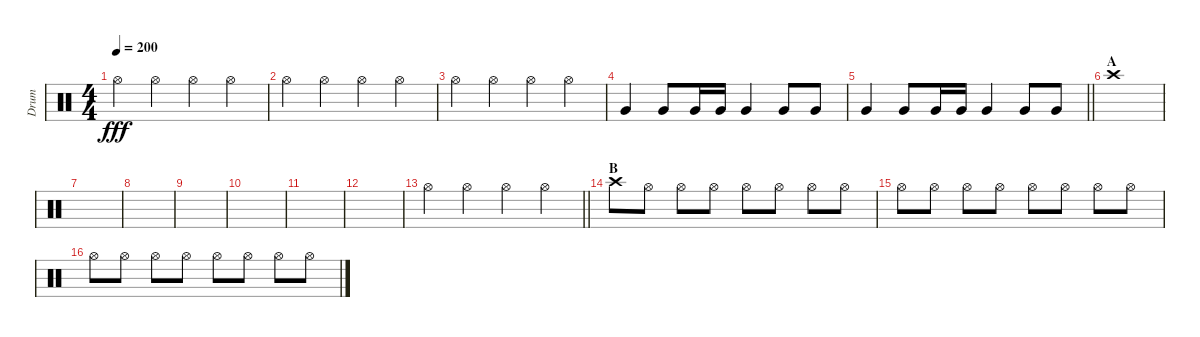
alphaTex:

\track ("Drum" "Drum") {instrument percussion}
\staff {score}
\articulation defaults
\ts (4 4)
\tempo 200
\clef neutral
\ks c "Hi-Hat (open)".4{dy fff} "Hi-Hat (open)".4 "Hi-Hat (open)".4 "Hi-Hat (open)".4
|
"Hi-Hat (open)".4 "Hi-Hat (open)".4 "Hi-Hat (open)".4 "Hi-Hat (open)".4 |
"Hi-Hat (open)".4 "Hi-Hat (open)".4 "Hi-Hat (open)".4 "Hi-Hat (open)".4 |
"Very Low Tom (hit)".4 "Very Low Tom (hit)".8 "Very Low Tom (hit)".16 "Very Low Tom (hit)".16 "Very Low Tom (hit)".4 "Very Low Tom (hit)".8 "Very Low Tom (hit)".8 |
\barLineRight lightlight "Very Low Tom (hit)".4 "Very Low Tom (hit)".8 "Very Low Tom (hit)".16 "Very Low Tom (hit)".16 "Very Low Tom (hit)".4 "Very Low Tom (hit)".8 "Very Low Tom (hit)".8
|
\section ("" "A")
"Crash high (hit)".1 |
|
|
|
|
|
|
\barLineRight lightlight "Hi-Hat (open)".4 "Hi-Hat (open)".4 "Hi-Hat (open)".4 "Hi-Hat (open)".4
|
\section ("" "B")
"Crash high (hit)".8 "Hi-Hat (open)".8 "Hi-Hat (open)".8 "Hi-Hat (open)".8 "Hi-Hat (open)".8 "Hi-Hat (open)".8 "Hi-Hat (open)".8 "Hi-Hat (open)".8 |
"Hi-Hat (open)".8 "Hi-Hat (open)".8 "Hi-Hat (open)".8 "Hi-Hat (open)".8 "Hi-Hat (open)".8 "Hi-Hat (open)".8 "Hi-Hat (open)".8 "Hi-Hat (open)".8 |
"Hi-Hat (open)".8 "Hi-Hat (open)".8 "Hi-Hat (open)".8 "Hi-Hat (open)".8 "Hi-Hat (open)".8 "Hi-Hat (open)".8 "Hi-Hat (open)".8 "Hi-Hat (open)".8
